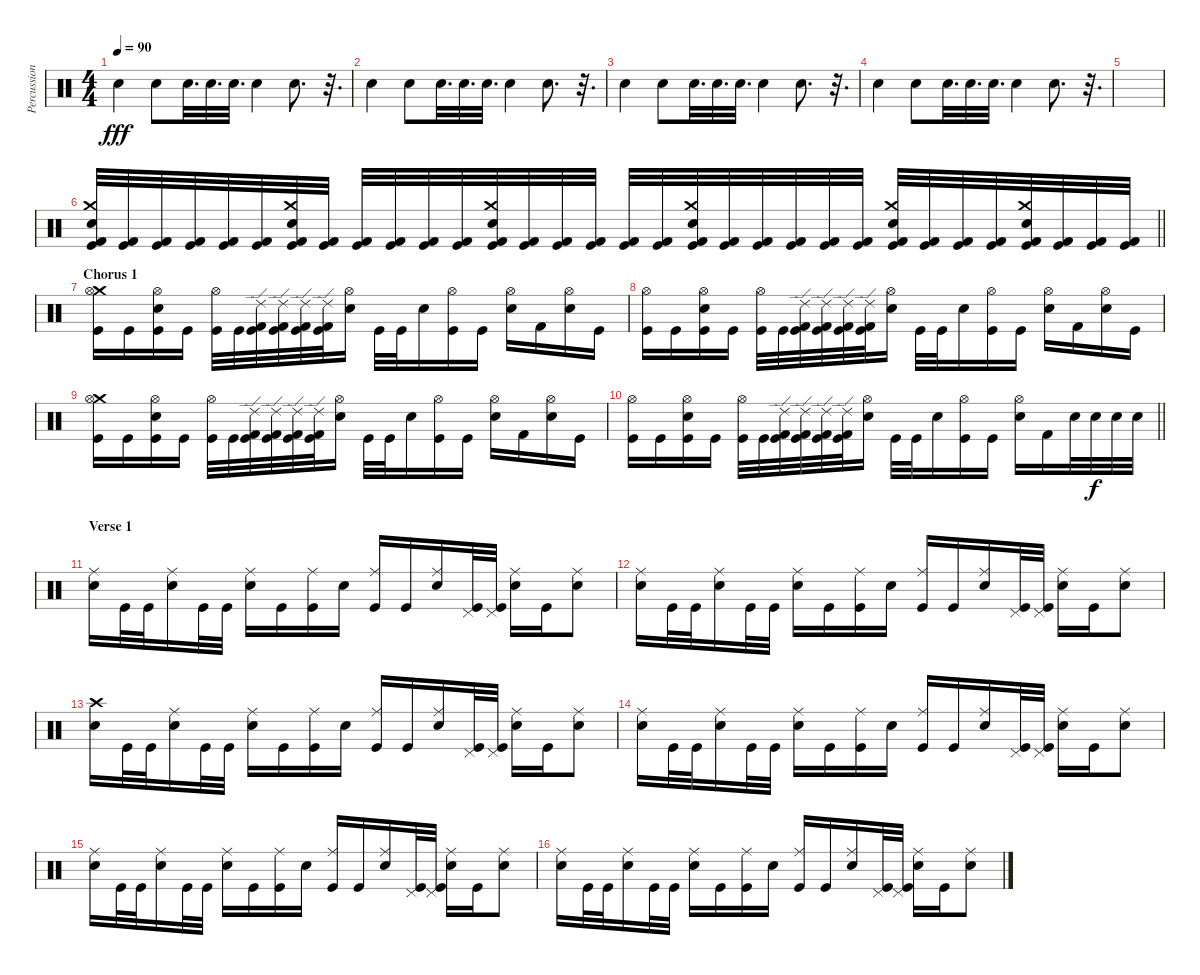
\track ("Percussion" "Percussion") {instrument percussion}
\staff {score}
\articulation defaults
\ts (4 4)
\tempo 90
\clef neutral
\ks c "Electric Snare (hit)".4{dy fff} "Electric Snare (hit)".8 "Electric Snare (hit)".32{d} "Electric Snare (hit)".32{d} "Electric Snare (hit)".32{d} "Electric Snare (hit)".4 "Electric Snare (hit)".8{d}
r.32{d} |
"Electric Snare (hit)".4 "Electric Snare (hit)".8 "Electric Snare (hit)".32{d} "Electric Snare (hit)".32{d} "Electric Snare (hit)".32{d} "Electric Snare (hit)".4 "Electric Snare (hit)".8{d} r.32{d} |
"Electric Snare (hit)".4 "Electric Snare (hit)".8 "Electric Snare (hit)".32{d} "Electric Snare (hit)".32{d} "Electric Snare (hit)".32{d} "Electric Snare (hit)".4 "Electric Snare (hit)".8{d} r.32{d} |
"Electric Snare (hit)".4 "Electric Snare (hit)".8 "Electric Snare (hit)".32{d} "Electric Snare (hit)".32{d} "Electric Snare (hit)".32{d} "Electric Snare (hit)".4 "Electric Snare (hit)".8{d} r.32{d} |
|
\barLineRight lightlight
("Crash medium (hit)" "Electric Snare (hit)" "Kick (hit) 2" "Kick (hit)").32 ("Kick (hit) 2" "Kick (hit)").32 ("Kick (hit) 2" "Kick (hit)").32 ("Kick (hit) 2" "Kick (hit)").32 ("Kick (hit) 2" "Kick (hit)").32 ("Kick (hit) 2" "Kick (hit)").32 ("Crash medium (hit)" "Electric Snare (hit)" "Kick (hit) 2" "Kick (hit)").32 ("Kick (hit) 2" "Kick (hit)").32 ("Kick (hit) 2" "Kick (hit)").32 ("Kick (hit) 2" "Kick (hit)").32 ("Kick (hit) 2" "Kick (hit)").32 ("Kick (hit) 2" "Kick (hit)").32 ("Crash medium (hit)" "Electric Snare (hit)" "Kick (hit) 2" "Kick (hit)").32 ("Kick (hit) 2" "Kick (hit)").32 ("Kick (hit) 2" "Kick (hit)").32 ("Kick (hit) 2" "Kick (hit)").32 ("Kick (hit) 2" "Kick (hit)").32 ("Kick (hit) 2" "Kick (hit)").32 ("Crash medium (hit)" "Electric Snare (hit)" "Kick (hit) 2" "Kick (hit)").32 ("Kick (hit) 2" "Kick (hit)").32 ("Kick (hit) 2" "Kick (hit)").32 ("Kick (hit) 2" "Kick (hit)").32 ("Kick (hit) 2" "Kick (hit)").32 ("Kick (hit) 2" "Kick (hit)").32 ("Crash medium (hit)" "Electric Snare (hit)" "Kick (hit) 2" "Kick (hit)").32 ("Kick (hit) 2" "Kick (hit)").32 ("Kick (hit) 2" "Kick (hit)").32 ("Kick (hit) 2" "Kick (hit)").32 ("Crash medium (hit)" "Electric Snare (hit)" "Kick (hit) 2" "Kick (hit)").32 ("Kick (hit) 2" "Kick (hit)").32 ("Kick (hit) 2" "Kick (hit)").32 ("Kick (hit) 2" "Kick (hit)").32 |
\section ("" "Chorus 1")
("Crash medium (hit)" "Hi-Hat (open)" "Kick (hit)").16 "Kick (hit)".16 ("Hi-Hat (open)" "Electric Snare (hit)" "Kick (hit)").16 "Kick (hit)".16 ("Hi-Hat (open)" "Kick (hit)").32 "Kick (hit)".32 ("Ride (edge) 2" "Kick (hit) 2" "Kick (hit)").32 ("Ride (edge) 2" "Kick (hit) 2" "Kick (hit)").32 ("Ride (edge) 2" "Kick (hit) 2" "Kick (hit)").32 ("Ride (edge) 2" "Kick (hit) 2" "Kick (hit)").32 ("Hi-Hat (open)" "Electric Snare (hit)").16 "Kick (hit)".32 "Kick (hit)".32 "Electric Snare (hit)".16 ("Hi-Hat (open)" "Kick (hit)").16 "Kick (hit)".16 ("Hi-Hat (open)" "Electric Snare (hit)").16 "Kick (hit) 2".16 ("Hi-Hat (open)" "Electric Snare (hit)").16 "Kick (hit)".16 |
("Hi-Hat (open)" "Kick (hit)").16 "Kick (hit)".16 ("Hi-Hat (open)" "Electric Snare (hit)" "Kick (hit)").16 "Kick (hit)".16 ("Hi-Hat (open)" "Kick (hit)").32 "Kick (hit)".32 ("Ride (edge) 2" "Kick (hit) 2" "Kick (hit)").32 ("Ride (edge) 2" "Kick (hit) 2" "Kick (hit)").32 ("Ride (edge) 2" "Kick (hit) 2" "Kick (hit)").32 ("Ride (edge) 2" "Kick (hit) 2" "Kick (hit)").32 ("Hi-Hat (open)" "Electric Snare (hit)").16 "Kick (hit)".32 "Kick (hit)".32 "Electric Snare (hit)".16 ("Hi-Hat (open)" "Kick (hit)").16 "Kick (hit)".16 ("Hi-Hat (open)" "Electric Snare (hit)").16 "Kick (hit) 2".16 ("Hi-Hat (open)" "Electric Snare (hit)").16 "Kick (hit)".16 |
("Crash medium (hit)" "Hi-Hat (open)" "Kick (hit)").16 "Kick (hit)".16 ("Hi-Hat (open)" "Electric Snare (hit)" "Kick (hit)").16 "Kick (hit)".16 ("Hi-Hat (open)" "Kick (hit)").32 "Kick (hit)".32 ("Ride (edge) 2" "Kick (hit) 2" "Kick (hit)").32 ("Ride (edge) 2" "Kick (hit) 2" "Kick (hit)").32 ("Ride (edge) 2" "Kick (hit) 2" "Kick (hit)").32 ("Ride (edge) 2" "Kick (hit) 2" "Kick (hit)").32 ("Hi-Hat (open)" "Electric Snare (hit)").16 "Kick (hit)".32 "Kick (hit)".32 "Electric Snare (hit)".16 ("Hi-Hat (open)" "Kick (hit)").16 "Kick (hit)".16 ("Hi-Hat (open)" "Electric Snare (hit)").16 "Kick (hit) 2".16 ("Hi-Hat (open)" "Electric Snare (hit)").16 "Kick (hit)".16 |
\barLineRight lightlight
("Hi-Hat (open)" "Kick (hit)").16 "Kick (hit)".16 ("Hi-Hat (open)" "Electric Snare (hit)" "Kick (hit)").16 "Kick (hit)".16 ("Hi-Hat (open)" "Kick (hit)").32 "Kick (hit)".32 ("Ride (edge) 2" "Kick (hit) 2" "Kick (hit)").32 ("Ride (edge) 2" "Kick (hit) 2" "Kick (hit)").32 ("Ride (edge) 2" "Kick (hit) 2" "Kick (hit)").32 ("Ride (edge) 2" "Kick (hit) 2" "Kick (hit)").32 ("Hi-Hat (open)" "Electric Snare (hit)").16 "Kick (hit)".32 "Kick (hit)".32 "Electric Snare (hit)".16 ("Hi-Hat (open)" "Kick (hit)").16 "Kick (hit)".16 ("Hi-Hat (open)" "Electric Snare (hit)").16 "Kick (hit) 2".16 "Electric Snare (hit)".32 "Electric Snare (hit)".32{dy f} "Electric Snare (hit)".32 "Electric Snare (hit)".32 |
\section ("" "Verse 1")
("Ride (middle)" "Electric Snare (hit)").16 "Kick (hit)".32 "Kick (hit)".32 ("Ride (middle)" "Electric Snare (hit)").16 "Kick (hit)".32 "Kick (hit)".32 ("Ride (middle)" "Electric Snare (hit)").16 "Kick (hit)".16 ("Ride (middle)" "Kick (hit)").16 "Electric Snare (hit)".16 ("Ride (middle)" "Kick (hit)").16 "Kick (hit)".16 ("Ride (middle)" "Electric Snare (hit)").16 ("Pedal Hi-Hat (hit)" "Kick (hit)").32 ("Pedal Hi-Hat (hit)" "Kick (hit)").32 ("Ride (middle)" "Electric Snare (hit)").16 "Kick (hit)".16 ("Ride (middle)" "Electric Snare (hit)").8 |
("Ride (middle)" "Electric Snare (hit)").16 "Kick (hit)".32 "Kick (hit)".32 ("Ride (middle)" "Electric Snare (hit)").16 "Kick (hit)".32 "Kick (hit)".32 ("Ride (middle)" "Electric Snare (hit)").16 "Kick (hit)".16 ("Ride (middle)" "Kick (hit)").16 "Electric Snare (hit)".16 ("Ride (middle)" "Kick (hit)").16 "Kick (hit)".16 ("Ride (middle)" "Electric Snare (hit)").16 ("Pedal Hi-Hat (hit)" "Kick (hit)").32 ("Pedal Hi-Hat (hit)" "Kick (hit)").32 ("Ride (middle)" "Electric Snare (hit)").16 "Kick (hit)".16 ("Ride (middle)" "Electric Snare (hit)").8 |
("Crash high (hit)" "Electric Snare (hit)").16 "Kick (hit)".32 "Kick (hit)".32 ("Ride (middle)" "Electric Snare (hit)").16 "Kick (hit)".32 "Kick (hit)".32 ("Ride (middle)" "Electric Snare (hit)").16 "Kick (hit)".16 ("Ride (middle)" "Kick (hit)").16 "Electric Snare (hit)".16 ("Ride (middle)" "Kick (hit)").16 "Kick (hit)".16 ("Ride (middle)" "Electric Snare (hit)").16 ("Pedal Hi-Hat (hit)" "Kick (hit)").32 ("Pedal Hi-Hat (hit)" "Kick (hit)").32 ("Ride (middle)" "Electric Snare (hit)").16 "Kick (hit)".16 ("Ride (middle)" "Electric Snare (hit)").8 |
("Ride (middle)" "Electric Snare (hit)").16 "Kick (hit)".32 "Kick (hit)".32 ("Ride (middle)" "Electric Snare (hit)").16 "Kick (hit)".32 "Kick (hit)".32 ("Ride (middle)" "Electric Snare (hit)").16 "Kick (hit)".16 ("Ride (middle)" "Kick (hit)").16 "Electric Snare (hit)".16 ("Ride (middle)" "Kick (hit)").16 "Kick (hit)".16 ("Ride (middle)" "Electric Snare (hit)").16 ("Pedal Hi-Hat (hit)" "Kick (hit)").32 ("Pedal Hi-Hat (hit)" "Kick (hit)").32 ("Ride (middle)" "Electric Snare (hit)").16 "Kick (hit)".16 ("Ride (middle)" "Electric Snare (hit)").8 |
("Ride (middle)" "Electric Snare (hit)").16 "Kick (hit)".32 "Kick (hit)".32 ("Ride (middle)" "Electric Snare (hit)").16 "Kick (hit)".32 "Kick (hit)".32 ("Ride (middle)" "Electric Snare (hit)").16 "Kick (hit)".16 ("Ride (middle)" "Kick (hit)").16 "Electric Snare (hit)".16 ("Ride (middle)" "Kick (hit)").16 "Kick (hit)".16 ("Ride (middle)" "Electric Snare (hit)").16 ("Pedal Hi-Hat (hit)" "Kick (hit)").32 ("Pedal Hi-Hat (hit)" "Kick (hit)").32 ("Ride (middle)" "Electric Snare (hit)").16 "Kick (hit)".16 ("Ride (middle)" "Electric Snare (hit)").8 |
("Ride (middle)" "Electric Snare (hit)").16 "Kick (hit)".32 "Kick (hit)".32 ("Ride (middle)" "Electric Snare (hit)").16 "Kick (hit)".32 "Kick (hit)".32 ("Ride (middle)" "Electric Snare (hit)").16 "Kick (hit)".16 ("Ride (middle)" "Kick (hit)").16 "Electric Snare (hit)".16 ("Ride (middle)" "Kick (hit)").16 "Kick (hit)".16 ("Ride (middle)" "Electric Snare (hit)").16 ("Pedal Hi-Hat (hit)" "Kick (hit)").32 ("Pedal Hi-Hat (hit)" "Kick (hit)").32 ("Ride (middle)" "Electric Snare (hit)").16 "Kick (hit)".16 ("Ride (middle)" "Electric Snare (hit)").8
